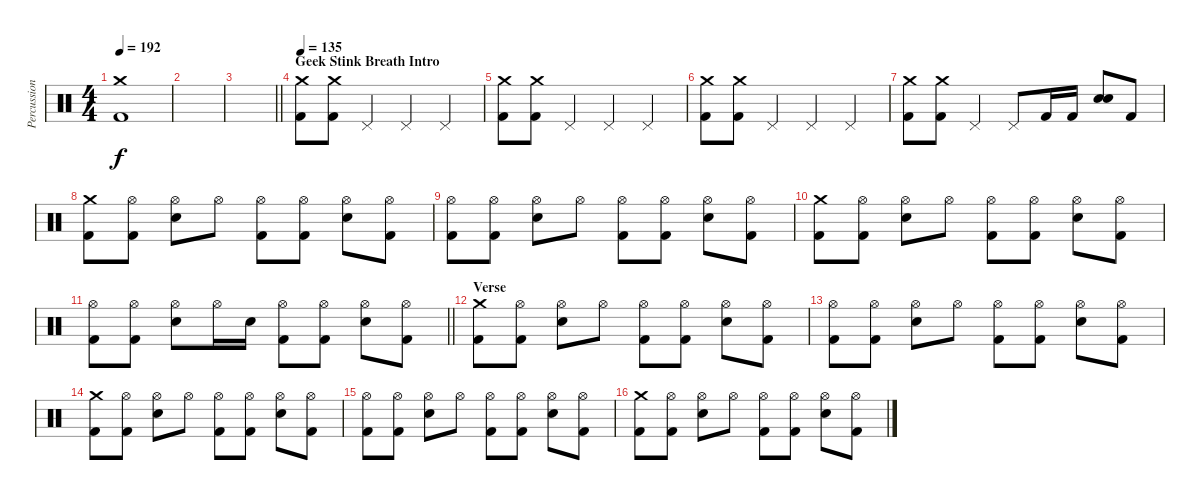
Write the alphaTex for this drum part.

\track ("Percussion" "Percussion") {instrument percussion}
\staff {score}
\articulation defaults
\ts (4 4)
\tempo 192
\clef neutral
\ks c
("Crash medium (hit)" "Kick (hit) 2").1{dy f} |
|
\barLineRight lightlight
|
\section ("" "Geek Stink Breath Intro")
\tempo 135
("Crash medium (hit)" "Kick (hit) 2").8 ("Crash medium (hit)" "Kick (hit) 2").8 "Pedal Hi-Hat (hit)".4 "Pedal Hi-Hat (hit)".4 "Pedal Hi-Hat (hit)".4 |
("Crash medium (hit)" "Kick (hit) 2").8 ("Crash medium (hit)" "Kick (hit) 2").8 "Pedal Hi-Hat (hit)".4 "Pedal Hi-Hat (hit)".4 "Pedal Hi-Hat (hit)".4 |
("Crash medium (hit)" "Kick (hit) 2").8 ("Crash medium (hit)" "Kick (hit) 2").8 "Pedal Hi-Hat (hit)".4 "Pedal Hi-Hat (hit)".4 "Pedal Hi-Hat (hit)".4 |
("Crash medium (hit)" "Kick (hit) 2").8 ("Crash medium (hit)" "Kick (hit) 2").8 "Pedal Hi-Hat (hit)".4 "Pedal Hi-Hat (hit)".8 "Kick (hit) 2".16 "Kick (hit) 2".16 ("Electric Snare (hit)" "Electric Snare (hit)").8 "Kick (hit) 2".8 |
("Crash medium (hit)" "Kick (hit) 2").8 ("Hi-Hat (open)" "Kick (hit) 2").8 ("Hi-Hat (open)" "Electric Snare (hit)").8 "Hi-Hat (open)".8 ("Hi-Hat (open)" "Kick (hit) 2").8 ("Hi-Hat (open)" "Kick (hit) 2").8 ("Hi-Hat (open)" "Electric Snare (hit)").8 ("Hi-Hat (open)" "Kick (hit) 2").8 |
("Hi-Hat (open)" "Kick (hit) 2").8 ("Hi-Hat (open)" "Kick (hit) 2").8 ("Hi-Hat (open)" "Electric Snare (hit)").8 "Hi-Hat (open)".8 ("Hi-Hat (open)" "Kick (hit) 2").8 ("Hi-Hat (open)" "Kick (hit) 2").8 ("Hi-Hat (open)" "Electric Snare (hit)").8 ("Hi-Hat (open)" "Kick (hit) 2").8 |
("Crash medium (hit)" "Kick (hit) 2").8 ("Hi-Hat (open)" "Kick (hit) 2").8 ("Hi-Hat (open)" "Electric Snare (hit)").8 "Hi-Hat (open)".8 ("Hi-Hat (open)" "Kick (hit) 2").8 ("Hi-Hat (open)" "Kick (hit) 2").8 ("Hi-Hat (open)" "Electric Snare (hit)").8 ("Hi-Hat (open)" "Kick (hit) 2").8 |
\barLineRight lightlight
("Hi-Hat (open)" "Kick (hit) 2").8 ("Hi-Hat (open)" "Kick (hit) 2").8 ("Hi-Hat (open)" "Electric Snare (hit)").8 "Hi-Hat (open)".16 "Electric Snare (hit)".16 ("Hi-Hat (open)" "Kick (hit) 2").8 ("Hi-Hat (open)" "Kick (hit) 2").8 ("Hi-Hat (open)" "Electric Snare (hit)").8 ("Hi-Hat (open)" "Kick (hit) 2").8 |
\section ("" "Verse")
("Crash medium (hit)" "Kick (hit) 2").8 ("Hi-Hat (open)" "Kick (hit) 2").8 ("Hi-Hat (open)" "Electric Snare (hit)").8 "Hi-Hat (open)".8 ("Hi-Hat (open)" "Kick (hit) 2").8 ("Hi-Hat (open)" "Kick (hit) 2").8 ("Hi-Hat (open)" "Electric Snare (hit)").8 ("Hi-Hat (open)" "Kick (hit) 2").8 |
("Hi-Hat (open)" "Kick (hit) 2").8 ("Hi-Hat (open)" "Kick (hit) 2").8 ("Hi-Hat (open)" "Electric Snare (hit)").8 "Hi-Hat (open)".8 ("Hi-Hat (open)" "Kick (hit) 2").8 ("Hi-Hat (open)" "Kick (hit) 2").8 ("Hi-Hat (open)" "Electric Snare (hit)").8 ("Hi-Hat (open)" "Kick (hit) 2").8 |
("Crash medium (hit)" "Kick (hit) 2").8 ("Hi-Hat (open)" "Kick (hit) 2").8 ("Hi-Hat (open)" "Electric Snare (hit)").8 "Hi-Hat (open)".8 ("Hi-Hat (open)" "Kick (hit) 2").8 ("Hi-Hat (open)" "Kick (hit) 2").8 ("Hi-Hat (open)" "Electric Snare (hit)").8 ("Hi-Hat (open)" "Kick (hit) 2").8 |
("Hi-Hat (open)" "Kick (hit) 2").8 ("Hi-Hat (open)" "Kick (hit) 2").8 ("Hi-Hat (open)" "Electric Snare (hit)").8 "Hi-Hat (open)".8 ("Hi-Hat (open)" "Kick (hit) 2").8 ("Hi-Hat (open)" "Kick (hit) 2").8 ("Hi-Hat (open)" "Electric Snare (hit)").8 ("Hi-Hat (open)" "Kick (hit) 2").8 |
("Crash medium (hit)" "Kick (hit) 2").8 ("Hi-Hat (open)" "Kick (hit) 2").8 ("Hi-Hat (open)" "Electric Snare (hit)").8 "Hi-Hat (open)".8 ("Hi-Hat (open)" "Kick (hit) 2").8 ("Hi-Hat (open)" "Kick (hit) 2").8 ("Hi-Hat (open)" "Electric Snare (hit)").8 ("Hi-Hat (open)" "Kick (hit) 2").8
